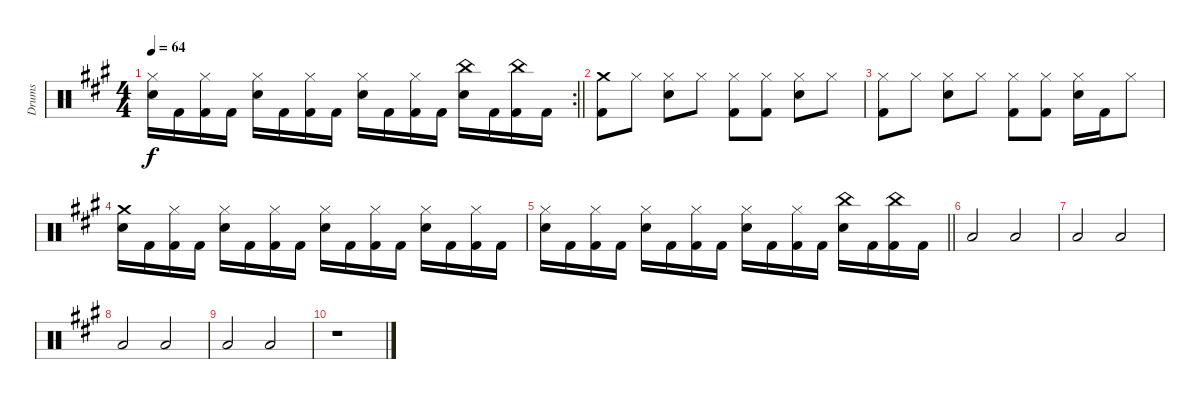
\track ("Drums" "Drums") {instrument percussion}
\staff {score}
\articulation defaults
\rc 2
\ts (4 4)
\tempo 64
\clef neutral
\barLineRight lightlight
\ks a
("Hi-Hat (closed)" "Electric Snare (hit)").16{dy f} "Kick (hit) 2".16 ("Hi-Hat (closed)" "Kick (hit) 2").16 "Kick (hit) 2".16 ("Hi-Hat (closed)" "Electric Snare (hit)").16 "Kick (hit) 2".16 ("Hi-Hat (closed)" "Kick (hit) 2").16 "Kick (hit) 2".16 ("Hi-Hat (closed)" "Electric Snare (hit)").16 "Kick (hit) 2".16 ("Hi-Hat (closed)" "Kick (hit) 2").16 "Kick (hit) 2".16 ("China (hit)" "Electric Snare (hit)").16 "Kick (hit) 2".16 ("China (hit)" "Kick (hit) 2").16 "Kick (hit) 2".16 |
("Crash medium (hit)" "Kick (hit) 2").8 "Hi-Hat (closed)".8 ("Hi-Hat (closed)" "Electric Snare (hit)").8 "Hi-Hat (closed)".8 ("Hi-Hat (closed)" "Kick (hit) 2").8 ("Hi-Hat (closed)" "Kick (hit) 2").8 ("Hi-Hat (closed)" "Electric Snare (hit)").8 "Hi-Hat (closed)".8 |
("Hi-Hat (closed)" "Kick (hit) 2").8 "Hi-Hat (closed)".8 ("Hi-Hat (closed)" "Electric Snare (hit)").8 "Hi-Hat (closed)".8 ("Hi-Hat (closed)" "Kick (hit) 2").8 ("Hi-Hat (closed)" "Kick (hit) 2").8 ("Hi-Hat (closed)" "Electric Snare (hit)").16 "Kick (hit) 2".16 "Hi-Hat (closed)".8 |
("Crash medium (hit)" "Electric Snare (hit)").16 "Kick (hit) 2".16 ("Hi-Hat (closed)" "Kick (hit) 2").16 "Kick (hit) 2".16 ("Hi-Hat (closed)" "Electric Snare (hit)").16 "Kick (hit) 2".16 ("Hi-Hat (closed)" "Kick (hit) 2").16 "Kick (hit) 2".16 ("Hi-Hat (closed)" "Electric Snare (hit)").16 "Kick (hit) 2".16 ("Hi-Hat (closed)" "Kick (hit) 2").16 "Kick (hit) 2".16 ("Hi-Hat (closed)" "Electric Snare (hit)").16 "Kick (hit) 2".16 ("Hi-Hat (closed)" "Kick (hit) 2").16 "Kick (hit) 2".16 |
\barLineRight lightlight
("Hi-Hat (closed)" "Electric Snare (hit)").16 "Kick (hit) 2".16 ("Hi-Hat (closed)" "Kick (hit) 2").16 "Kick (hit) 2".16 ("Hi-Hat (closed)" "Electric Snare (hit)").16 "Kick (hit) 2".16 ("Hi-Hat (closed)" "Kick (hit) 2").16 "Kick (hit) 2".16 ("Hi-Hat (closed)" "Electric Snare (hit)").16 "Kick (hit) 2".16 ("Hi-Hat (closed)" "Kick (hit) 2").16 "Kick (hit) 2".16 ("China (hit)" "Electric Snare (hit)").16 "Kick (hit) 2".16 ("China (hit)" "Kick (hit) 2").16 "Kick (hit) 2".16 |
"Low Floor Tom (hit)".2{volume 2} "Low Floor Tom (hit)".2 |
"Low Floor Tom (hit)".2 "Low Floor Tom (hit)".2 |
"Low Floor Tom (hit)".2{volume 2} "Low Floor Tom (hit)".2 |
"Low Floor Tom (hit)".2 "Low Floor Tom (hit)".2 |
r.1
